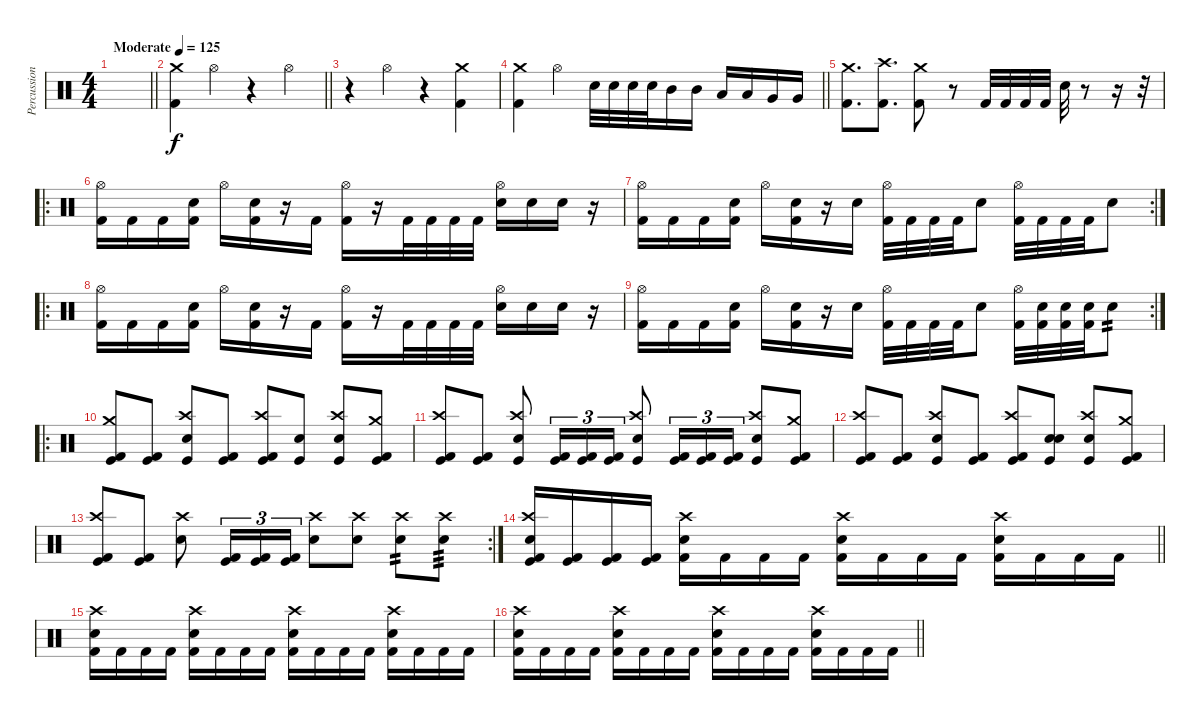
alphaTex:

\track ("Percussion" "Percussion") {instrument percussion}
\staff {score}
\articulation defaults
\ts (4 4)
\tempo (125 "Moderate")
\clef neutral
\barLineRight lightlight
\ks c
|
\barLineRight lightlight
("Kick (hit) 2" "Crash medium (hit)").4 "Hi-Hat (open)".4 r.4 "Hi-Hat (open)".4 |
r.4 "Hi-Hat (open)".4 r.4 ("Crash medium (hit)" "Kick (hit) 2").4 |
\barLineRight lightlight
("Crash medium (hit)" "Kick (hit) 2").4 "Hi-Hat (open)".4 "Electric Snare (hit)".32 "Electric Snare (hit)".32 "Electric Snare (hit)".32 "Electric Snare (hit)".32 "Mid Tom (hit)".16 "Mid Tom (hit)".16 "Low Tom (hit)".16 "Low Tom (hit)".16 "Very Low Tom (hit)".16 "Very Low Tom (hit)".16 |
("Crash medium (hit)" "Kick (hit) 2").8{d} ("Crash high (hit)" "Kick (hit) 2").8{d} ("Crash medium (hit)" "Kick (hit) 2").8 r.8 "Kick (hit) 2".32 "Kick (hit) 2".32 "Kick (hit) 2".32 "Kick (hit) 2".32 "Electric Snare (hit)".32 r.8 r.16 r.32 |
\ro
("Hi-Hat (open)" "Kick (hit) 2").16 "Kick (hit) 2".16 "Kick (hit) 2".16 ("Electric Snare (hit)" "Kick (hit) 2").16 "Hi-Hat (open)".16 ("Electric Snare (hit)" "Kick (hit) 2").16 r.16 "Kick (hit) 2".16 ("Hi-Hat (open)" "Kick (hit) 2").16 r.16 "Kick (hit) 2".32 "Kick (hit) 2".32 "Kick (hit) 2".32 "Kick (hit) 2".32 ("Hi-Hat (open)" "Electric Snare (hit)").16 "Electric Snare (hit)".16 "Electric Snare (hit)".16 r.16 |
\rc 2
("Hi-Hat (open)" "Kick (hit) 2").16 "Kick (hit) 2".16 "Kick (hit) 2".16 ("Electric Snare (hit)" "Kick (hit) 2").16 "Hi-Hat (open)".16 ("Electric Snare (hit)" "Kick (hit) 2").16 r.16 "Electric Snare (hit)".16 ("Hi-Hat (open)" "Kick (hit) 2").32 "Kick (hit) 2".32 "Kick (hit) 2".32 "Kick (hit) 2".32 "Electric Snare (hit)".8 ("Hi-Hat (open)" "Kick (hit) 2").32 "Kick (hit) 2".32 "Kick (hit) 2".32 "Kick (hit) 2".32 "Electric Snare (hit)".8 |
\ro
("Hi-Hat (open)" "Kick (hit) 2").16 "Kick (hit) 2".16 "Kick (hit) 2".16 ("Electric Snare (hit)" "Kick (hit) 2").16 "Hi-Hat (open)".16 ("Electric Snare (hit)" "Kick (hit) 2").16 r.16 "Kick (hit) 2".16 ("Hi-Hat (open)" "Kick (hit) 2").16 r.16 "Kick (hit) 2".32 "Kick (hit) 2".32 "Kick (hit) 2".32 "Kick (hit) 2".32 ("Hi-Hat (open)" "Electric Snare (hit)").16 "Electric Snare (hit)".16 "Electric Snare (hit)".16 r.16 |
\rc 2
("Hi-Hat (open)" "Kick (hit) 2").16 "Kick (hit) 2".16 "Kick (hit) 2".16 ("Electric Snare (hit)" "Kick (hit) 2").16 "Hi-Hat (open)".16 ("Electric Snare (hit)" "Kick (hit) 2").16 r.16 "Electric Snare (hit)".16 ("Hi-Hat (open)" "Kick (hit) 2").32 "Kick (hit) 2".32 "Kick (hit) 2".32 "Kick (hit) 2".32 "Electric Snare (hit)".8 ("Hi-Hat (open)" "Kick (hit) 2").32 ("Electric Snare (hit)" "Kick (hit) 2").32 ("Electric Snare (hit)" "Kick (hit) 2").32 ("Electric Snare (hit)" "Kick (hit) 2").32 "Electric Snare (hit)".8{tp 2} |
\ro
("Crash medium (hit)" "Kick (hit) 2" "Kick (hit)").8 ("Kick (hit) 2" "Kick (hit)").8 ("Crash high (hit)" "Electric Snare (hit)" "Kick (hit)").8 ("Kick (hit) 2" "Kick (hit)").8 ("Crash high (hit)" "Kick (hit) 2" "Kick (hit)").8 ("Electric Snare (hit)" "Kick (hit)").8 ("Crash high (hit)" "Electric Snare (hit)" "Kick (hit)").8 ("Crash medium (hit)" "Kick (hit)" "Kick (hit) 2").8 |
("Crash high (hit)" "Kick (hit)" "Kick (hit) 2").8 ("Kick (hit)" "Kick (hit) 2").8 ("Crash high (hit)" "Electric Snare (hit)" "Kick (hit)").8 ("Kick (hit)" "Kick (hit) 2").16{tu (3 2)} ("Kick (hit)" "Kick (hit) 2").16{tu (3 2)} ("Kick (hit)" "Kick (hit) 2").16{tu (3 2)} ("Crash high (hit)" "Electric Snare (hit)" "Kick (hit)").8 ("Kick (hit)" "Kick (hit) 2").16{tu (3 2)} ("Kick (hit)" "Kick (hit) 2").16{tu (3 2)} ("Kick (hit)" "Kick (hit) 2").16{tu (3 2)} ("Crash high (hit)" "Kick (hit)" "Electric Snare (hit)").8 ("Crash medium (hit)" "Kick (hit)" "Kick (hit) 2").8 |
("Crash high (hit)" "Kick (hit) 2" "Kick (hit)").8 ("Kick (hit) 2" "Kick (hit)").8 ("Crash high (hit)" "Electric Snare (hit)" "Kick (hit)").8 ("Kick (hit) 2" "Kick (hit)").8 ("Crash high (hit)" "Kick (hit) 2" "Kick (hit)").8 ("Snare (hit)" "Electric Snare (hit)" "Kick (hit)").8 ("Crash high (hit)" "Electric Snare (hit)" "Kick (hit)").8 ("Crash medium (hit)" "Kick (hit)" "Kick (hit) 2").8 |
\rc 2
("Crash high (hit)" "Kick (hit)" "Kick (hit) 2").8 ("Kick (hit)" "Kick (hit) 2").8 ("Crash high (hit)" "Electric Snare (hit)").8 ("Kick (hit)" "Kick (hit) 2").16{tu (3 2)} ("Kick (hit)" "Kick (hit) 2").16{tu (3 2)} ("Kick (hit)" "Kick (hit) 2").16{tu (3 2)} ("Crash high (hit)" "Electric Snare (hit)").8 ("Crash high (hit)" "Electric Snare (hit)").8 ("Crash high (hit)" "Electric Snare (hit)").8{tp 2} ("Crash high (hit)" "Electric Snare (hit)").8{tp 3} |
\barLineRight lightlight
("Crash high (hit)" "Electric Snare (hit)" "Kick (hit) 2" "Kick (hit)").16 ("Kick (hit) 2" "Kick (hit)").16 ("Kick (hit) 2" "Kick (hit)").16 ("Kick (hit) 2" "Kick (hit)").16 ("Crash high (hit)" "Electric Snare (hit)" "Kick (hit) 2").16 "Kick (hit) 2".16 "Kick (hit) 2".16 "Kick (hit) 2".16 ("Crash high (hit)" "Electric Snare (hit)" "Kick (hit) 2").16 "Kick (hit) 2".16 "Kick (hit) 2".16 "Kick (hit) 2".16 ("Crash high (hit)" "Electric Snare (hit)" "Kick (hit) 2").16 "Kick (hit) 2".16 "Kick (hit) 2".16 "Kick (hit) 2".16 |
("Crash high (hit)" "Electric Snare (hit)" "Kick (hit) 2").16 "Kick (hit) 2".16 "Kick (hit) 2".16 "Kick (hit) 2".16 ("Crash high (hit)" "Electric Snare (hit)" "Kick (hit) 2").16 "Kick (hit) 2".16 "Kick (hit) 2".16 "Kick (hit) 2".16 ("Crash high (hit)" "Electric Snare (hit)" "Kick (hit) 2").16 "Kick (hit) 2".16 "Kick (hit) 2".16 "Kick (hit) 2".16 ("Crash high (hit)" "Electric Snare (hit)" "Kick (hit) 2").16 "Kick (hit) 2".16 "Kick (hit) 2".16 "Kick (hit) 2".16 |
\barLineRight lightlight
("Crash high (hit)" "Electric Snare (hit)" "Kick (hit) 2").16 "Kick (hit) 2".16 "Kick (hit) 2".16 "Kick (hit) 2".16 ("Crash high (hit)" "Electric Snare (hit)" "Kick (hit) 2").16 "Kick (hit) 2".16 "Kick (hit) 2".16 "Kick (hit) 2".16 ("Crash high (hit)" "Electric Snare (hit)" "Kick (hit) 2").16 "Kick (hit) 2".16 "Kick (hit) 2".16 "Kick (hit) 2".16 ("Crash high (hit)" "Electric Snare (hit)" "Kick (hit) 2").16 "Kick (hit) 2".16 "Kick (hit) 2".16 "Kick (hit) 2".16
